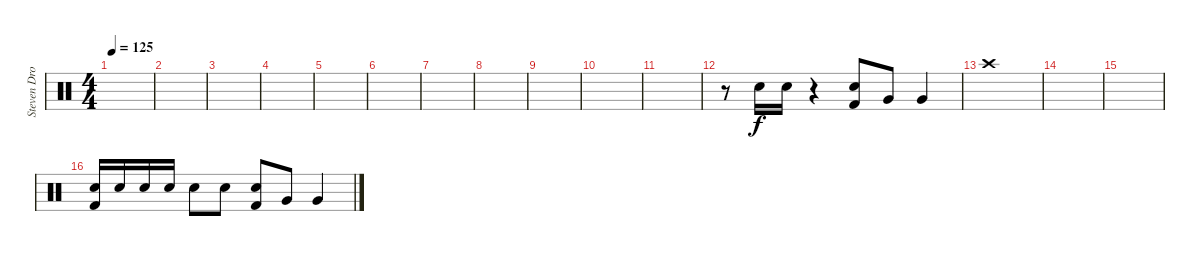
\track ("Steven Drozd (Drums Overdub)" "Steven Dro") {instrument percussion}
\staff {score}
\articulation defaults
\ts (4 4)
\tempo 125
\clef neutral
\ks c
|
|
|
|
|
|
|
|
|
|
|
r.8 "Electric Snare (hit)".16 "Electric Snare (hit)".16 r.4 ("Electric Snare (hit)"{tr (40 64)} "Kick (hit) 2").8 "Very Low Tom (hit)"{tr (45 32)}.8 "Very Low Tom (hit)"{tr (41 32)}.4 |
"Crash high (hit)".1 |
|
|
("Electric Snare (hit)" "Kick (hit) 2").16 "Electric Snare (hit)".16 "Electric Snare (hit)".16 "Electric Snare (hit)".16 "Electric Snare (hit)".8 "Electric Snare (hit)".8 ("Electric Snare (hit)"{tr (40 64)} "Kick (hit) 2").8 "Very Low Tom (hit)"{tr (45 32)}.8 "Very Low Tom (hit)"{tr (41 32)}.4
